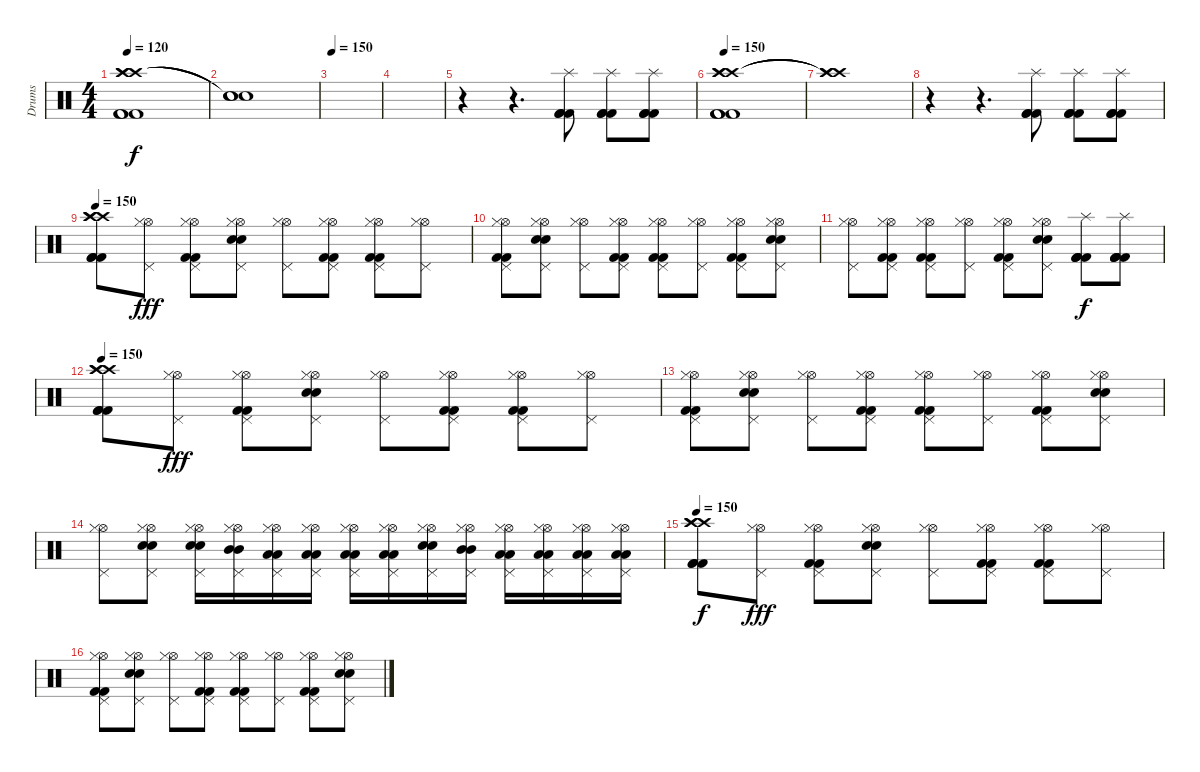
\track ("Drums" "Drums") {instrument percussion}
\staff {score}
\articulation defaults
\ts (4 4)
\tempo 120
\clef neutral
\ks c
("Crash high (hit)" "Crash high (hit)" "Crash high (hit)" "Kick (hit) 2" "Kick (hit) 2" "Kick (hit) 2").1{dy f} |
("Snare (hit)"{t} "Snare (hit)"{t} "Snare (hit)"{t}).1 |
\tempo 150
|
|
r.4 r.4{d} ("Splash (hit)" "Kick (hit) 2" "Kick (hit) 2" "Kick (hit) 2").8 ("Splash (hit)" "Kick (hit) 2" "Kick (hit) 2" "Kick (hit) 2").8 ("Splash (hit)" "Kick (hit) 2" "Kick (hit) 2" "Kick (hit) 2").8 |
\tempo 150
("Crash high (hit)" "Crash high (hit)" "Crash high (hit)" "Kick (hit) 2" "Kick (hit) 2" "Kick (hit) 2").1 |
("Crash high (hit)"{t} "Crash high (hit)"{t} "Crash high (hit)"{t}).1 |
r.4 r.4{d} ("Splash (hit)" "Kick (hit) 2" "Kick (hit) 2" "Kick (hit) 2").8 ("Splash (hit)" "Kick (hit) 2" "Kick (hit) 2" "Kick (hit) 2").8 ("Splash (hit)" "Kick (hit) 2" "Kick (hit) 2" "Kick (hit) 2").8 |
\tempo 150
("Crash high (hit)" "Crash high (hit)" "Crash high (hit)" "Kick (hit) 2" "Kick (hit) 2" "Kick (hit) 2").8 ("Hi-Hat (open)" "Pedal Hi-Hat (hit)" "Hi-Hat (closed)").8{dy fff} ("Hi-Hat (open)" "Pedal Hi-Hat (hit)" "Hi-Hat (closed)" "Kick (hit) 2" "Kick (hit) 2").8 ("Hi-Hat (open)" "Pedal Hi-Hat (hit)" "Hi-Hat (closed)" "Snare (hit) 2" "Snare (hit) 2").8 ("Hi-Hat (open)" "Pedal Hi-Hat (hit)" "Hi-Hat (closed)").8 ("Hi-Hat (open)" "Pedal Hi-Hat (hit)" "Hi-Hat (closed)" "Kick (hit) 2" "Kick (hit) 2").8 ("Hi-Hat (open)" "Pedal Hi-Hat (hit)" "Hi-Hat (closed)" "Kick (hit) 2" "Kick (hit) 2").8 ("Hi-Hat (open)" "Pedal Hi-Hat (hit)" "Hi-Hat (closed)").8 |
("Hi-Hat (open)" "Pedal Hi-Hat (hit)" "Hi-Hat (closed)" "Kick (hit) 2" "Kick (hit) 2").8 ("Hi-Hat (open)" "Pedal Hi-Hat (hit)" "Hi-Hat (closed)" "Snare (hit) 2" "Snare (hit) 2").8 ("Hi-Hat (open)" "Pedal Hi-Hat (hit)" "Hi-Hat (closed)").8 ("Hi-Hat (open)" "Pedal Hi-Hat (hit)" "Hi-Hat (closed)" "Kick (hit) 2" "Kick (hit) 2").8 ("Hi-Hat (open)" "Pedal Hi-Hat (hit)" "Hi-Hat (closed)" "Kick (hit) 2" "Kick (hit) 2").8 ("Hi-Hat (open)" "Pedal Hi-Hat (hit)" "Hi-Hat (closed)").8 ("Hi-Hat (open)" "Pedal Hi-Hat (hit)" "Hi-Hat (closed)" "Kick (hit) 2" "Kick (hit) 2").8 ("Hi-Hat (open)" "Pedal Hi-Hat (hit)" "Hi-Hat (closed)" "Snare (hit) 2" "Snare (hit) 2").8 |
("Hi-Hat (open)" "Pedal Hi-Hat (hit)" "Hi-Hat (closed)").8 ("Hi-Hat (open)" "Pedal Hi-Hat (hit)" "Hi-Hat (closed)" "Kick (hit) 2" "Kick (hit) 2").8 ("Hi-Hat (open)" "Pedal Hi-Hat (hit)" "Hi-Hat (closed)" "Kick (hit) 2" "Kick (hit) 2").8 ("Hi-Hat (open)" "Pedal Hi-Hat (hit)" "Hi-Hat (closed)").8 ("Hi-Hat (open)" "Pedal Hi-Hat (hit)" "Hi-Hat (closed)" "Kick (hit) 2" "Kick (hit) 2").8 ("Hi-Hat (open)" "Pedal Hi-Hat (hit)" "Hi-Hat (closed)" "Snare (hit) 2" "Snare (hit) 2").8 ("Splash (hit)" "Kick (hit) 2" "Kick (hit) 2" "Kick (hit) 2" "Kick (hit) 2").8{dy f} ("Splash (hit)" "Kick (hit) 2" "Kick (hit) 2" "Kick (hit) 2" "Kick (hit) 2").8 |
\tempo 150
("Crash high (hit)" "Crash high (hit)" "Crash high (hit)" "Kick (hit) 2" "Kick (hit) 2" "Kick (hit) 2").8 ("Hi-Hat (open)" "Pedal Hi-Hat (hit)" "Hi-Hat (closed)").8{dy fff} ("Hi-Hat (open)" "Pedal Hi-Hat (hit)" "Hi-Hat (closed)" "Kick (hit) 2" "Kick (hit) 2").8 ("Hi-Hat (open)" "Pedal Hi-Hat (hit)" "Hi-Hat (closed)" "Snare (hit) 2" "Snare (hit) 2").8 ("Hi-Hat (open)" "Pedal Hi-Hat (hit)" "Hi-Hat (closed)").8 ("Hi-Hat (open)" "Pedal Hi-Hat (hit)" "Hi-Hat (closed)" "Kick (hit) 2" "Kick (hit) 2").8 ("Hi-Hat (open)" "Pedal Hi-Hat (hit)" "Hi-Hat (closed)" "Kick (hit) 2" "Kick (hit) 2").8 ("Hi-Hat (open)" "Pedal Hi-Hat (hit)" "Hi-Hat (closed)").8 |
("Hi-Hat (open)" "Pedal Hi-Hat (hit)" "Hi-Hat (closed)" "Kick (hit) 2" "Kick (hit) 2").8 ("Hi-Hat (open)" "Pedal Hi-Hat (hit)" "Hi-Hat (closed)" "Snare (hit) 2" "Snare (hit) 2").8 ("Hi-Hat (open)" "Pedal Hi-Hat (hit)" "Hi-Hat (closed)").8 ("Hi-Hat (open)" "Pedal Hi-Hat (hit)" "Hi-Hat (closed)" "Kick (hit) 2" "Kick (hit) 2").8 ("Hi-Hat (open)" "Pedal Hi-Hat (hit)" "Hi-Hat (closed)" "Kick (hit) 2" "Kick (hit) 2").8 ("Hi-Hat (open)" "Pedal Hi-Hat (hit)" "Hi-Hat (closed)").8 ("Hi-Hat (open)" "Pedal Hi-Hat (hit)" "Hi-Hat (closed)" "Kick (hit) 2" "Kick (hit) 2").8 ("Hi-Hat (open)" "Pedal Hi-Hat (hit)" "Hi-Hat (closed)" "Snare (hit) 2" "Snare (hit) 2").8 |
("Hi-Hat (open)" "Pedal Hi-Hat (hit)" "Hi-Hat (closed)").8 ("Hi-Hat (open)" "Pedal Hi-Hat (hit)" "Hi-Hat (closed)" "Snare (hit) 2" "Snare (hit) 2").8 ("Hi-Hat (open)" "Pedal Hi-Hat (hit)" "Hi-Hat (closed)" "Snare (hit) 2" "Snare (hit) 2").16 ("Hi-Hat (open)" "Pedal Hi-Hat (hit)" "Hi-Hat (closed)" "Mid Tom (hit)" "Mid Tom (hit)").16 ("Hi-Hat (open)" "Pedal Hi-Hat (hit)" "Hi-Hat (closed)" "Low Tom (hit)" "Low Tom (hit)").16 ("Hi-Hat (open)" "Pedal Hi-Hat (hit)" "Hi-Hat (closed)" "Low Floor Tom (hit)" "Low Floor Tom (hit)").16 ("Hi-Hat (open)" "Pedal Hi-Hat (hit)" "Hi-Hat (closed)" "Low Floor Tom (hit)" "Low Floor Tom (hit)").16 ("Hi-Hat (open)" "Pedal Hi-Hat (hit)" "Hi-Hat (closed)" "Low Floor Tom (hit)" "Low Floor Tom (hit)").16 ("Hi-Hat (open)" "Pedal Hi-Hat (hit)" "Hi-Hat (closed)" "Snare (hit) 2" "Snare (hit) 2").16 ("Hi-Hat (open)" "Pedal Hi-Hat (hit)" "Hi-Hat (closed)" "Mid Tom (hit)" "Mid Tom (hit)").16 ("Hi-Hat (open)" "Pedal Hi-Hat (hit)" "Hi-Hat (closed)" "Low Tom (hit)" "Low Tom (hit)").16 ("Hi-Hat (open)" "Pedal Hi-Hat (hit)" "Hi-Hat (closed)" "Low Floor Tom (hit)" "Low Floor Tom (hit)").16 ("Hi-Hat (open)" "Pedal Hi-Hat (hit)" "Hi-Hat (closed)" "Low Floor Tom (hit)" "Low Floor Tom (hit)").16 ("Hi-Hat (open)" "Pedal Hi-Hat (hit)" "Hi-Hat (closed)" "Low Floor Tom (hit)" "Low Floor Tom (hit)").16 |
\tempo 150
("Crash high (hit)" "Crash high (hit)" "Crash high (hit)" "Kick (hit) 2" "Kick (hit) 2" "Kick (hit) 2").8{dy f} ("Hi-Hat (open)" "Pedal Hi-Hat (hit)" "Hi-Hat (closed)").8{dy fff} ("Hi-Hat (open)" "Pedal Hi-Hat (hit)" "Hi-Hat (closed)" "Kick (hit) 2" "Kick (hit) 2").8 ("Hi-Hat (open)" "Pedal Hi-Hat (hit)" "Hi-Hat (closed)" "Snare (hit) 2" "Snare (hit) 2").8 ("Hi-Hat (open)" "Pedal Hi-Hat (hit)" "Hi-Hat (closed)").8 ("Hi-Hat (open)" "Pedal Hi-Hat (hit)" "Hi-Hat (closed)" "Kick (hit) 2" "Kick (hit) 2").8 ("Hi-Hat (open)" "Pedal Hi-Hat (hit)" "Hi-Hat (closed)" "Kick (hit) 2" "Kick (hit) 2").8 ("Hi-Hat (open)" "Pedal Hi-Hat (hit)" "Hi-Hat (closed)").8 |
("Hi-Hat (open)" "Pedal Hi-Hat (hit)" "Hi-Hat (closed)" "Kick (hit) 2" "Kick (hit) 2").8 ("Hi-Hat (open)" "Pedal Hi-Hat (hit)" "Hi-Hat (closed)" "Snare (hit) 2" "Snare (hit) 2").8 ("Hi-Hat (open)" "Pedal Hi-Hat (hit)" "Hi-Hat (closed)").8 ("Hi-Hat (open)" "Pedal Hi-Hat (hit)" "Hi-Hat (closed)" "Kick (hit) 2" "Kick (hit) 2").8 ("Hi-Hat (open)" "Pedal Hi-Hat (hit)" "Hi-Hat (closed)" "Kick (hit) 2" "Kick (hit) 2").8 ("Hi-Hat (open)" "Pedal Hi-Hat (hit)" "Hi-Hat (closed)").8 ("Hi-Hat (open)" "Pedal Hi-Hat (hit)" "Hi-Hat (closed)" "Kick (hit) 2" "Kick (hit) 2").8 ("Hi-Hat (open)" "Pedal Hi-Hat (hit)" "Hi-Hat (closed)" "Snare (hit) 2" "Snare (hit) 2").8
